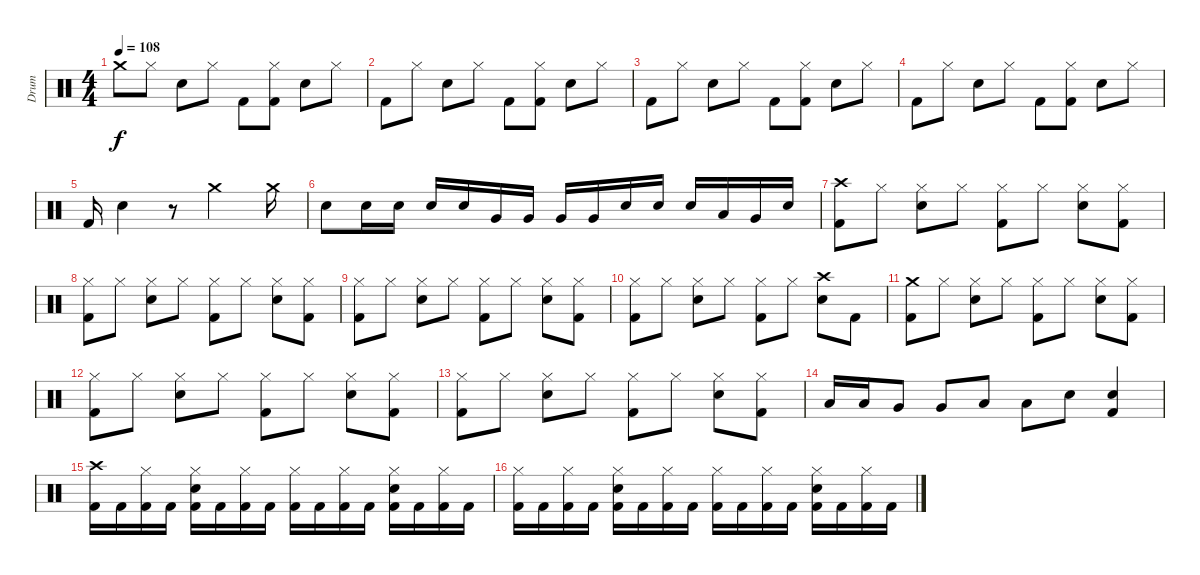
\track ("Drum" "Drum") {instrument percussion}
\staff {score}
\articulation defaults
\ts (4 4)
\tempo 108
\clef neutral
\ks c "Crash medium (hit)".8{dy f} "Hi-Hat (closed)".8 "Electric Snare (hit)".8 "Hi-Hat (closed)".8 "Kick (hit) 2".8
("Hi-Hat (closed)" "Kick (hit) 2").8 "Electric Snare (hit)".8 "Hi-Hat (closed)".8 |
"Kick (hit) 2".8 "Hi-Hat (closed)".8 "Electric Snare (hit)".8 "Hi-Hat (closed)".8 "Kick (hit) 2".8 ("Hi-Hat (closed)" "Kick (hit) 2").8 "Electric Snare (hit)".8 "Hi-Hat (closed)".8 |
"Kick (hit) 2".8 "Hi-Hat (closed)".8 "Electric Snare (hit)".8 "Hi-Hat (closed)".8 "Kick (hit) 2".8 ("Hi-Hat (closed)" "Kick (hit) 2").8 "Electric Snare (hit)".8 "Hi-Hat (closed)".8 |
"Kick (hit) 2".8 "Hi-Hat (closed)".8 "Electric Snare (hit)".8 "Hi-Hat (closed)".8 "Kick (hit) 2".8 ("Hi-Hat (closed)" "Kick (hit) 2").8 "Electric Snare (hit)".8 "Hi-Hat (closed)".8 |
"Kick (hit) 2".16 "Electric Snare (hit)".4 r.8 "Crash medium (hit)".2 "Crash medium (hit)".16 |
"Electric Snare (hit)".8 "Electric Snare (hit)".16 "Electric Snare (hit)".16 "Electric Snare (hit)".16 "Electric Snare (hit)".16 "Very Low Tom (hit)".16 "Very Low Tom (hit)".16 "Very Low Tom (hit)".16 "Very Low Tom (hit)".16 "Electric Snare (hit)".16 "Electric Snare (hit)".16 "Electric Snare (hit)".16 "Low Tom (hit)".16 "Very Low Tom (hit)".16 "Electric Snare (hit)".16 |
("Crash high (hit)" "Kick (hit) 2").8 "Hi-Hat (closed)".8 ("Hi-Hat (closed)" "Electric Snare (hit)").8 "Hi-Hat (closed)".8 ("Hi-Hat (closed)" "Kick (hit) 2").8 "Hi-Hat (closed)".8 ("Hi-Hat (closed)" "Electric Snare (hit)").8 ("Hi-Hat (closed)" "Kick (hit) 2").8 |
("Hi-Hat (closed)" "Kick (hit) 2").8 "Hi-Hat (closed)".8 ("Hi-Hat (closed)" "Electric Snare (hit)").8 "Hi-Hat (closed)".8 ("Hi-Hat (closed)" "Kick (hit) 2").8 "Hi-Hat (closed)".8 ("Hi-Hat (closed)" "Electric Snare (hit)").8 ("Hi-Hat (closed)" "Kick (hit) 2").8 |
("Hi-Hat (closed)" "Kick (hit) 2").8 "Hi-Hat (closed)".8 ("Hi-Hat (closed)" "Electric Snare (hit)").8 "Hi-Hat (closed)".8 ("Hi-Hat (closed)" "Kick (hit) 2").8 "Hi-Hat (closed)".8 ("Hi-Hat (closed)" "Electric Snare (hit)").8 ("Hi-Hat (closed)" "Kick (hit) 2").8 |
("Hi-Hat (closed)" "Kick (hit) 2").8 "Hi-Hat (closed)".8 ("Hi-Hat (closed)" "Electric Snare (hit)").8 "Hi-Hat (closed)".8 ("Hi-Hat (closed)" "Kick (hit) 2").8 "Hi-Hat (closed)".8 ("Crash high (hit)" "Electric Snare (hit)").8 "Kick (hit) 2".8 |
("Crash medium (hit)" "Kick (hit) 2").8 "Hi-Hat (closed)".8 ("Hi-Hat (closed)" "Electric Snare (hit)").8 "Hi-Hat (closed)".8 ("Hi-Hat (closed)" "Kick (hit) 2").8 "Hi-Hat (closed)".8 ("Hi-Hat (closed)" "Electric Snare (hit)").8 ("Hi-Hat (closed)" "Kick (hit) 2").8 |
("Hi-Hat (closed)" "Kick (hit) 2").8 "Hi-Hat (closed)".8 ("Hi-Hat (closed)" "Electric Snare (hit)").8 "Hi-Hat (closed)".8 ("Hi-Hat (closed)" "Kick (hit) 2").8 "Hi-Hat (closed)".8 ("Hi-Hat (closed)" "Electric Snare (hit)").8 ("Hi-Hat (closed)" "Kick (hit) 2").8 |
("Hi-Hat (closed)" "Kick (hit) 2").8 "Hi-Hat (closed)".8 ("Hi-Hat (closed)" "Electric Snare (hit)").8 "Hi-Hat (closed)".8 ("Hi-Hat (closed)" "Kick (hit) 2").8 "Hi-Hat (closed)".8 ("Hi-Hat (closed)" "Electric Snare (hit)").8 ("Hi-Hat (closed)" "Kick (hit) 2").8 |
"Low Floor Tom (hit)".16 "Low Floor Tom (hit)".16 "Very Low Tom (hit)".8 "Very Low Tom (hit)".8 "Low Tom (hit)".8 "Low Tom (hit)".8 "Electric Snare (hit)".8 ("Electric Snare (hit)" "Kick (hit) 2").4 |
("Crash high (hit)" "Kick (hit) 2").16 "Kick (hit) 2".16 ("Hi-Hat (closed)" "Kick (hit) 2").16 "Kick (hit) 2".16 ("Hi-Hat (closed)" "Electric Snare (hit)" "Kick (hit) 2").16 "Kick (hit) 2".16 ("Hi-Hat (closed)" "Kick (hit) 2").16 "Kick (hit) 2".16 ("Hi-Hat (closed)" "Kick (hit) 2").16 "Kick (hit) 2".16 ("Hi-Hat (closed)" "Kick (hit) 2").16 "Kick (hit) 2".16 ("Hi-Hat (closed)" "Electric Snare (hit)" "Kick (hit) 2").16 "Kick (hit) 2".16 ("Hi-Hat (closed)" "Kick (hit) 2").16 "Kick (hit) 2".16 |
("Hi-Hat (closed)" "Kick (hit) 2").16 "Kick (hit) 2".16 ("Hi-Hat (closed)" "Kick (hit) 2").16 "Kick (hit) 2".16 ("Hi-Hat (closed)" "Electric Snare (hit)" "Kick (hit) 2").16 "Kick (hit) 2".16 ("Hi-Hat (closed)" "Kick (hit) 2").16 "Kick (hit) 2".16 ("Hi-Hat (closed)" "Kick (hit) 2").16 "Kick (hit) 2".16 ("Hi-Hat (closed)" "Kick (hit) 2").16 "Kick (hit) 2".16 ("Hi-Hat (closed)" "Electric Snare (hit)" "Kick (hit) 2").16 "Kick (hit) 2".16 ("Hi-Hat (closed)" "Kick (hit) 2").16 "Kick (hit) 2".16
